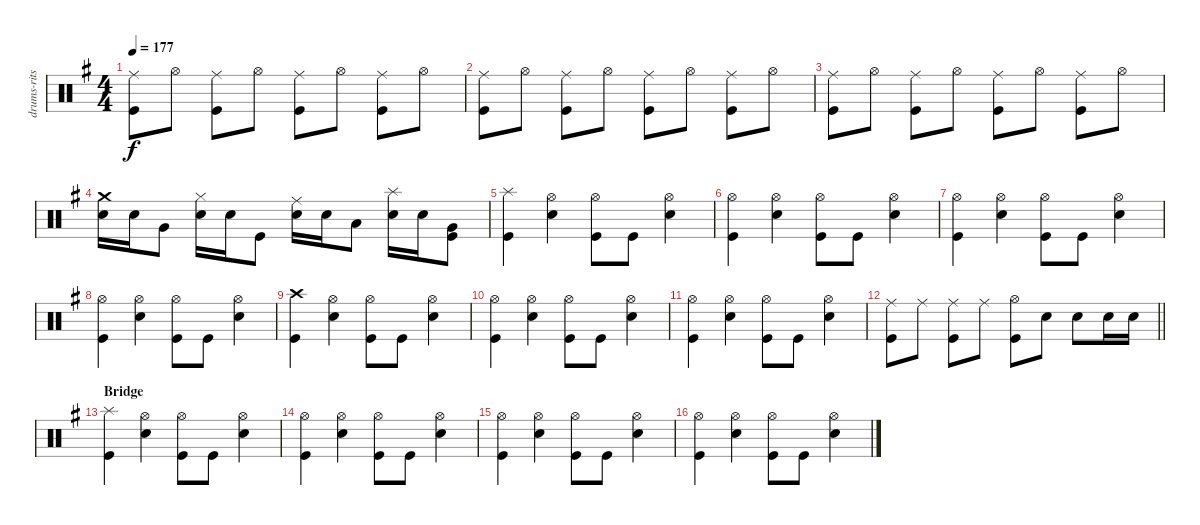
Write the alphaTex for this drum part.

\track ("drums-ritsu takana" "drums-rits") {instrument percussion}
\staff {score}
\articulation defaults
\ts (4 4)
\tempo 177
\clef neutral
\ks eminor
("Kick (hit)" "Ride (middle)").8{dy f} "Hi-Hat (open)".8 ("Kick (hit)" "Ride (middle)").8 "Hi-Hat (open)".8 ("Kick (hit)" "Ride (middle)").8 "Hi-Hat (open)".8 ("Kick (hit)" "Ride (middle)").8 "Hi-Hat (open)".8 |
("Kick (hit)" "Ride (middle)").8 "Hi-Hat (open)".8 ("Kick (hit)" "Ride (middle)").8 "Hi-Hat (open)".8 ("Kick (hit)" "Ride (middle)").8 "Hi-Hat (open)".8 ("Kick (hit)" "Ride (middle)").8 "Hi-Hat (open)".8 |
("Kick (hit)" "Ride (middle)").8 "Hi-Hat (open)".8 ("Kick (hit)" "Ride (middle)").8 "Hi-Hat (open)".8 ("Kick (hit)" "Ride (middle)").8 "Hi-Hat (open)".8 ("Kick (hit)" "Ride (middle)").8 "Hi-Hat (open)".8 |
("Snare (hit) 2" "Crash medium (hit)").16 "Snare (hit) 2".16 "Very Low Tom (hit)".8 ("Snare (hit) 2" "Hi-Hat (closed)").16 "Snare (hit) 2".16 "Kick (hit)".8 ("Snare (hit) 2" "Ride (middle)").16 "Snare (hit) 2".16 "Low Tom (hit)".8 ("Snare (hit) 2" "Splash (hit)").16 "Snare (hit) 2".16 ("Kick (hit)" "Very Low Tom (hit)").8 |
("Kick (hit)" "Splash (hit)").4 ("Hi-Hat (open)" "Snare (hit) 2").4 ("Hi-Hat (open)" "Kick (hit)").8 "Kick (hit)".8 ("Hi-Hat (open)" "Snare (hit) 2").4 |
("Hi-Hat (open)" "Kick (hit)").4 ("Hi-Hat (open)" "Snare (hit) 2").4 ("Hi-Hat (open)" "Kick (hit)").8 "Kick (hit)".8 ("Hi-Hat (open)" "Snare (hit) 2").4 |
("Hi-Hat (open)" "Kick (hit)").4 ("Hi-Hat (open)" "Snare (hit) 2").4 ("Hi-Hat (open)" "Kick (hit)").8 "Kick (hit)".8 ("Hi-Hat (open)" "Snare (hit) 2").4 |
("Hi-Hat (open)" "Kick (hit)").4 ("Hi-Hat (open)" "Snare (hit) 2").4 ("Hi-Hat (open)" "Kick (hit)").8 "Kick (hit)".8 ("Hi-Hat (open)" "Snare (hit) 2").4 |
("Crash high (hit)" "Kick (hit)").4 ("Hi-Hat (open)" "Snare (hit) 2").4 ("Hi-Hat (open)" "Kick (hit)").8 "Kick (hit)".8 ("Hi-Hat (open)" "Snare (hit) 2").4 |
("Hi-Hat (open)" "Kick (hit)").4 ("Hi-Hat (open)" "Snare (hit) 2").4 ("Hi-Hat (open)" "Kick (hit)").8 "Kick (hit)".8 ("Hi-Hat (open)" "Snare (hit) 2").4 |
("Hi-Hat (open)" "Kick (hit)").4 ("Hi-Hat (open)" "Snare (hit) 2").4 ("Hi-Hat (open)" "Kick (hit)").8 "Kick (hit)".8 ("Hi-Hat (open)" "Snare (hit) 2").4 |
\barLineRight lightlight
("Kick (hit)" "Ride (middle)").8 "Ride (middle)".8 ("Kick (hit)" "Ride (middle)").8 "Ride (middle)".8 ("Hi-Hat (open)" "Kick (hit)").8 "Snare (hit) 2".8 "Snare (hit) 2".8 "Snare (hit) 2".16 "Snare (hit) 2".16 |
\section ("" "Bridge")
("Kick (hit)" "Splash (hit)").4 ("Hi-Hat (open)" "Snare (hit) 2").4 ("Hi-Hat (open)" "Kick (hit)").8 "Kick (hit)".8 ("Hi-Hat (open)" "Snare (hit) 2").4 |
("Hi-Hat (open)" "Kick (hit)").4 ("Hi-Hat (open)" "Snare (hit) 2").4 ("Hi-Hat (open)" "Kick (hit)").8 "Kick (hit)".8 ("Hi-Hat (open)" "Snare (hit) 2").4 |
("Hi-Hat (open)" "Kick (hit)").4 ("Hi-Hat (open)" "Snare (hit) 2").4 ("Hi-Hat (open)" "Kick (hit)").8 "Kick (hit)".8 ("Hi-Hat (open)" "Snare (hit) 2").4 |
("Hi-Hat (open)" "Kick (hit)").4 ("Hi-Hat (open)" "Snare (hit) 2").4 ("Hi-Hat (open)" "Kick (hit)").8 "Kick (hit)".8 ("Hi-Hat (open)" "Snare (hit) 2").4
